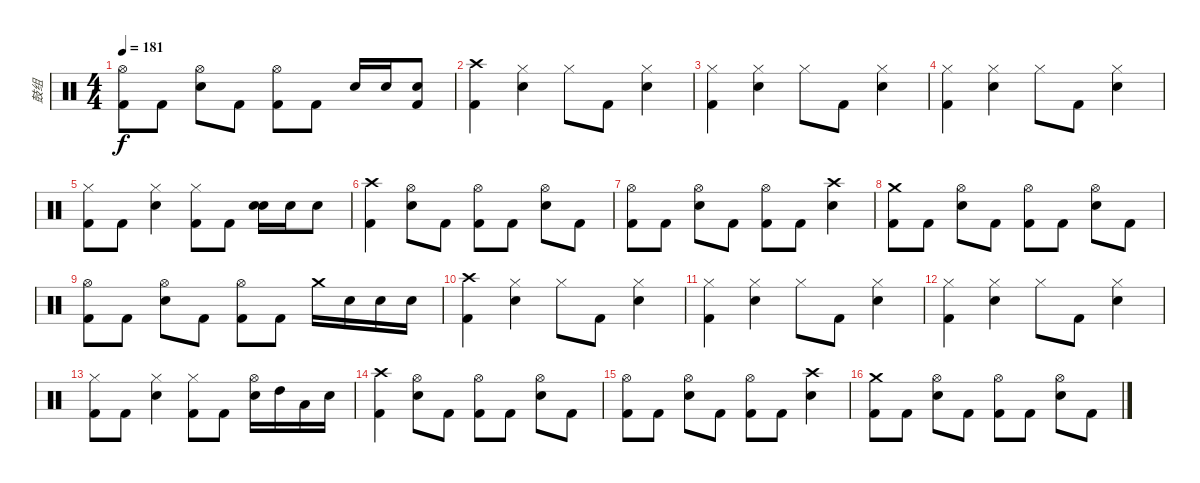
\track ("鼓组" "鼓组") {instrument percussion}
\staff {score}
\articulation defaults
\ts (4 4)
\tempo 181
\clef neutral
\ks c
("Hi-Hat (open)" "Kick (hit) 2").8{dy f} "Kick (hit) 2".8 ("Hi-Hat (open)" "Snare (hit) 2").8 "Kick (hit) 2".8 ("Hi-Hat (open)" "Kick (hit) 2").8 "Kick (hit) 2".8 "Snare (hit) 2".16 "Snare (hit) 2".16 ("Snare (hit) 2" "Kick (hit) 2").8 |
("Crash high (hit)" "Kick (hit) 2").4 ("Hi-Hat (closed)" "Snare (hit) 2").4 "Hi-Hat (closed)".8 "Kick (hit) 2".8 ("Hi-Hat (closed)" "Snare (hit) 2").4 |
("Hi-Hat (closed)" "Kick (hit) 2").4 ("Hi-Hat (closed)" "Snare (hit) 2").4 "Hi-Hat (closed)".8 "Kick (hit) 2".8 ("Hi-Hat (closed)" "Snare (hit) 2").4 |
("Hi-Hat (closed)" "Kick (hit) 2").4 ("Hi-Hat (closed)" "Snare (hit) 2").4 "Hi-Hat (closed)".8 "Kick (hit) 2".8 ("Hi-Hat (closed)" "Snare (hit) 2").4 |
("Hi-Hat (closed)" "Kick (hit) 2").8 "Kick (hit) 2".8 ("Hi-Hat (closed)" "Snare (hit) 2").4 ("Hi-Hat (closed)" "Kick (hit) 2").8 "Kick (hit) 2".8 ("Snare (hit) 2" "Snare (hit) 2").16 "Snare (hit) 2".16 "Snare (hit) 2".8 |
("Crash high (hit)" "Kick (hit) 2").4 ("Hi-Hat (open)" "Snare (hit) 2").8 "Kick (hit) 2".8 ("Hi-Hat (open)" "Kick (hit) 2").8 "Kick (hit) 2".8 ("Hi-Hat (open)" "Snare (hit) 2").8 "Kick (hit) 2".8 |
("Hi-Hat (open)" "Kick (hit) 2").8 "Kick (hit) 2".8 ("Hi-Hat (open)" "Snare (hit) 2").8 "Kick (hit) 2".8 ("Hi-Hat (open)" "Kick (hit) 2").8 "Kick (hit) 2".8 ("Crash high (hit)" "Snare (hit) 2").4 |
("Crash medium (hit)" "Kick (hit) 2").8 "Kick (hit) 2".8 ("Hi-Hat (open)" "Snare (hit) 2").8 "Kick (hit) 2".8 ("Hi-Hat (open)" "Kick (hit) 2").8 "Kick (hit) 2".8 ("Hi-Hat (open)" "Snare (hit) 2").8 "Kick (hit) 2".8 |
("Hi-Hat (open)" "Kick (hit) 2").8 "Kick (hit) 2".8 ("Hi-Hat (open)" "Snare (hit) 2").8 "Kick (hit) 2".8 ("Hi-Hat (open)" "Kick (hit) 2").8 "Kick (hit) 2".8 "Crash medium (hit)".16 "Snare (hit) 2".16 "Snare (hit) 2".16 "Snare (hit) 2".16 |
("Crash high (hit)" "Kick (hit) 2").4 ("Hi-Hat (closed)" "Snare (hit) 2").4 "Hi-Hat (closed)".8 "Kick (hit) 2".8 ("Hi-Hat (closed)" "Snare (hit) 2").4 |
("Hi-Hat (closed)" "Kick (hit) 2").4 ("Hi-Hat (closed)" "Snare (hit) 2").4 "Hi-Hat (closed)".8 "Kick (hit) 2".8 ("Hi-Hat (closed)" "Snare (hit) 2").4 |
("Hi-Hat (closed)" "Kick (hit) 2").4 ("Hi-Hat (closed)" "Snare (hit) 2").4 "Hi-Hat (closed)".8 "Kick (hit) 2".8 ("Hi-Hat (closed)" "Snare (hit) 2").4 |
("Hi-Hat (closed)" "Kick (hit) 2").8 "Kick (hit) 2".8 ("Hi-Hat (closed)" "Snare (hit) 2").4 ("Hi-Hat (closed)" "Kick (hit) 2").8 "Kick (hit) 2".8 ("Hi-Hat (open)" "Snare (hit) 2").16 "High Tom (hit)".16 "Low Tom (hit)".16 "Snare (hit) 2".16 |
("Crash high (hit)" "Kick (hit) 2").4 ("Hi-Hat (open)" "Snare (hit) 2").8 "Kick (hit) 2".8 ("Hi-Hat (open)" "Kick (hit) 2").8 "Kick (hit) 2".8 ("Hi-Hat (open)" "Snare (hit) 2").8 "Kick (hit) 2".8 |
("Hi-Hat (open)" "Kick (hit) 2").8 "Kick (hit) 2".8 ("Hi-Hat (open)" "Snare (hit) 2").8 "Kick (hit) 2".8 ("Hi-Hat (open)" "Kick (hit) 2").8 "Kick (hit) 2".8 ("Crash high (hit)" "Snare (hit) 2").4 |
("Crash medium (hit)" "Kick (hit) 2").8 "Kick (hit) 2".8 ("Hi-Hat (open)" "Snare (hit) 2").8 "Kick (hit) 2".8 ("Hi-Hat (open)" "Kick (hit) 2").8 "Kick (hit) 2".8 ("Hi-Hat (open)" "Snare (hit) 2").8 "Kick (hit) 2".8
